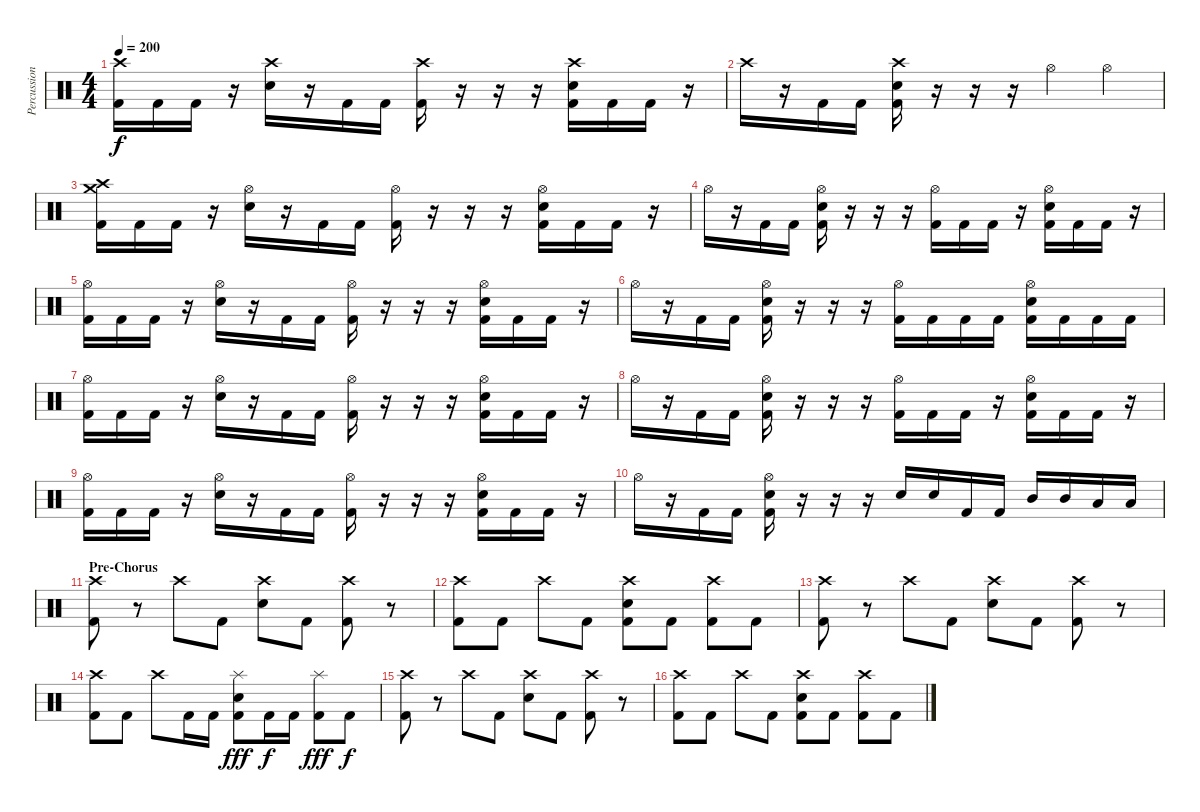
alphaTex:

\track ("Percussions" "Percussion") {instrument percussion}
\staff {score}
\articulation defaults
\ts (4 4)
\tempo 200
\clef neutral
\ks c
("Crash high (hit)" "Kick (hit) 2").16{dy f} "Kick (hit) 2".16 "Kick (hit) 2".16 r.16 ("Crash high (hit)" "Electric Snare (hit)").16 r.16 "Kick (hit) 2".16 "Kick (hit) 2".16 ("Crash high (hit)" "Kick (hit) 2").16 r.16 r.16 r.16 ("Crash high (hit)" "Electric Snare (hit)" "Kick (hit) 2").16 "Kick (hit) 2".16 "Kick (hit) 2".16 r.16 |
"Crash high (hit)".16 r.16 "Kick (hit) 2".16 "Kick (hit) 2".16 ("Crash high (hit)" "Electric Snare (hit)" "Kick (hit) 2").16 r.16 r.16 r.16 "Hi-Hat (open)".4 "Hi-Hat (open)".4 |
("Crash medium (hit)" "Crash high (hit)" "Kick (hit) 2").16 "Kick (hit) 2".16 "Kick (hit) 2".16 r.16 ("Hi-Hat (open)" "Electric Snare (hit)").16 r.16 "Kick (hit) 2".16 "Kick (hit) 2".16 ("Hi-Hat (open)" "Kick (hit) 2").16 r.16 r.16 r.16 ("Hi-Hat (open)" "Electric Snare (hit)" "Kick (hit) 2").16 "Kick (hit) 2".16 "Kick (hit) 2".16 r.16 |
"Hi-Hat (open)".16 r.16 "Kick (hit) 2".16 "Kick (hit) 2".16 ("Hi-Hat (open)" "Electric Snare (hit)" "Kick (hit) 2").16 r.16 r.16 r.16 ("Hi-Hat (open)" "Kick (hit) 2").16 "Kick (hit) 2".16 "Kick (hit) 2".16 r.16 ("Hi-Hat (open)" "Electric Snare (hit)" "Kick (hit) 2").16 "Kick (hit) 2".16 "Kick (hit) 2".16 r.16 |
("Hi-Hat (open)" "Kick (hit) 2").16 "Kick (hit) 2".16 "Kick (hit) 2".16 r.16 ("Hi-Hat (open)" "Electric Snare (hit)").16 r.16 "Kick (hit) 2".16 "Kick (hit) 2".16 ("Hi-Hat (open)" "Kick (hit) 2").16 r.16 r.16 r.16 ("Hi-Hat (open)" "Electric Snare (hit)" "Kick (hit) 2").16 "Kick (hit) 2".16 "Kick (hit) 2".16 r.16 |
"Hi-Hat (open)".16 r.16 "Kick (hit) 2".16 "Kick (hit) 2".16 ("Hi-Hat (open)" "Electric Snare (hit)" "Kick (hit) 2").16 r.16 r.16 r.16 ("Hi-Hat (open)" "Kick (hit) 2").16 "Kick (hit) 2".16 "Kick (hit) 2".16 "Kick (hit) 2".16 ("Hi-Hat (open)" "Electric Snare (hit)" "Kick (hit) 2").16 "Kick (hit) 2".16 "Kick (hit) 2".16 "Kick (hit) 2".16 |
("Hi-Hat (open)" "Kick (hit) 2").16 "Kick (hit) 2".16 "Kick (hit) 2".16 r.16 ("Hi-Hat (open)" "Electric Snare (hit)").16 r.16 "Kick (hit) 2".16 "Kick (hit) 2".16 ("Hi-Hat (open)" "Kick (hit) 2").16 r.16 r.16 r.16 ("Hi-Hat (open)" "Electric Snare (hit)" "Kick (hit) 2").16 "Kick (hit) 2".16 "Kick (hit) 2".16 r.16 |
"Hi-Hat (open)".16 r.16 "Kick (hit) 2".16 "Kick (hit) 2".16 ("Hi-Hat (open)" "Electric Snare (hit)" "Kick (hit) 2").16 r.16 r.16 r.16 ("Hi-Hat (open)" "Kick (hit) 2").16 "Kick (hit) 2".16 "Kick (hit) 2".16 r.16 ("Hi-Hat (open)" "Electric Snare (hit)" "Kick (hit) 2").16 "Kick (hit) 2".16 "Kick (hit) 2".16 r.16 |
("Hi-Hat (open)" "Kick (hit) 2").16 "Kick (hit) 2".16 "Kick (hit) 2".16 r.16 ("Hi-Hat (open)" "Electric Snare (hit)").16 r.16 "Kick (hit) 2".16 "Kick (hit) 2".16 ("Hi-Hat (open)" "Kick (hit) 2").16 r.16 r.16 r.16 ("Hi-Hat (open)" "Electric Snare (hit)" "Kick (hit) 2").16 "Kick (hit) 2".16 "Kick (hit) 2".16 r.16 |
"Hi-Hat (open)".16 r.16 "Kick (hit) 2".16 "Kick (hit) 2".16 ("Hi-Hat (open)" "Electric Snare (hit)" "Kick (hit) 2").16 r.16 r.16 r.16 "Electric Snare (hit)".16 "Electric Snare (hit)".16 "Kick (hit) 2".16 "Kick (hit) 2".16 "Mid Tom (hit)".16 "Mid Tom (hit)".16 "Low Tom (hit)".16 "Low Tom (hit)".16 |
\section ("" "Pre-Chorus")
("Crash high (hit)" "Kick (hit) 2").8 r.8 "Crash high (hit)".8 "Kick (hit) 2".8 ("Crash high (hit)" "Electric Snare (hit)").8 "Kick (hit) 2".8 ("Crash high (hit)" "Kick (hit) 2").8 r.8 |
("Crash high (hit)" "Kick (hit) 2").8 "Kick (hit) 2".8 "Crash high (hit)".8 "Kick (hit) 2".8 ("Crash high (hit)" "Electric Snare (hit)" "Kick (hit) 2").8 "Kick (hit) 2".8 ("Crash high (hit)" "Kick (hit) 2").8 "Kick (hit) 2".8 |
("Crash high (hit)" "Kick (hit) 2").8 r.8 "Crash high (hit)".8 "Kick (hit) 2".8 ("Crash high (hit)" "Electric Snare (hit)").8 "Kick (hit) 2".8 ("Crash high (hit)" "Kick (hit) 2").8 r.8 |
("Crash high (hit)" "Kick (hit) 2").8 "Kick (hit) 2".8 "Crash high (hit)".8 "Kick (hit) 2".16 "Kick (hit) 2".16 ("Splash (hit)" "Electric Snare (hit)" "Kick (hit) 2").8{dy fff} "Kick (hit) 2".16{dy f} "Kick (hit) 2".16 ("Splash (hit)" "Kick (hit) 2").8{dy fff} "Kick (hit) 2".8{dy f} |
("Crash high (hit)" "Kick (hit) 2").8 r.8 "Crash high (hit)".8 "Kick (hit) 2".8 ("Crash high (hit)" "Electric Snare (hit)").8 "Kick (hit) 2".8 ("Crash high (hit)" "Kick (hit) 2").8 r.8 |
("Crash high (hit)" "Kick (hit) 2").8 "Kick (hit) 2".8 "Crash high (hit)".8 "Kick (hit) 2".8 ("Crash high (hit)" "Electric Snare (hit)" "Kick (hit) 2").8 "Kick (hit) 2".8 ("Crash high (hit)" "Kick (hit) 2").8 "Kick (hit) 2".8
